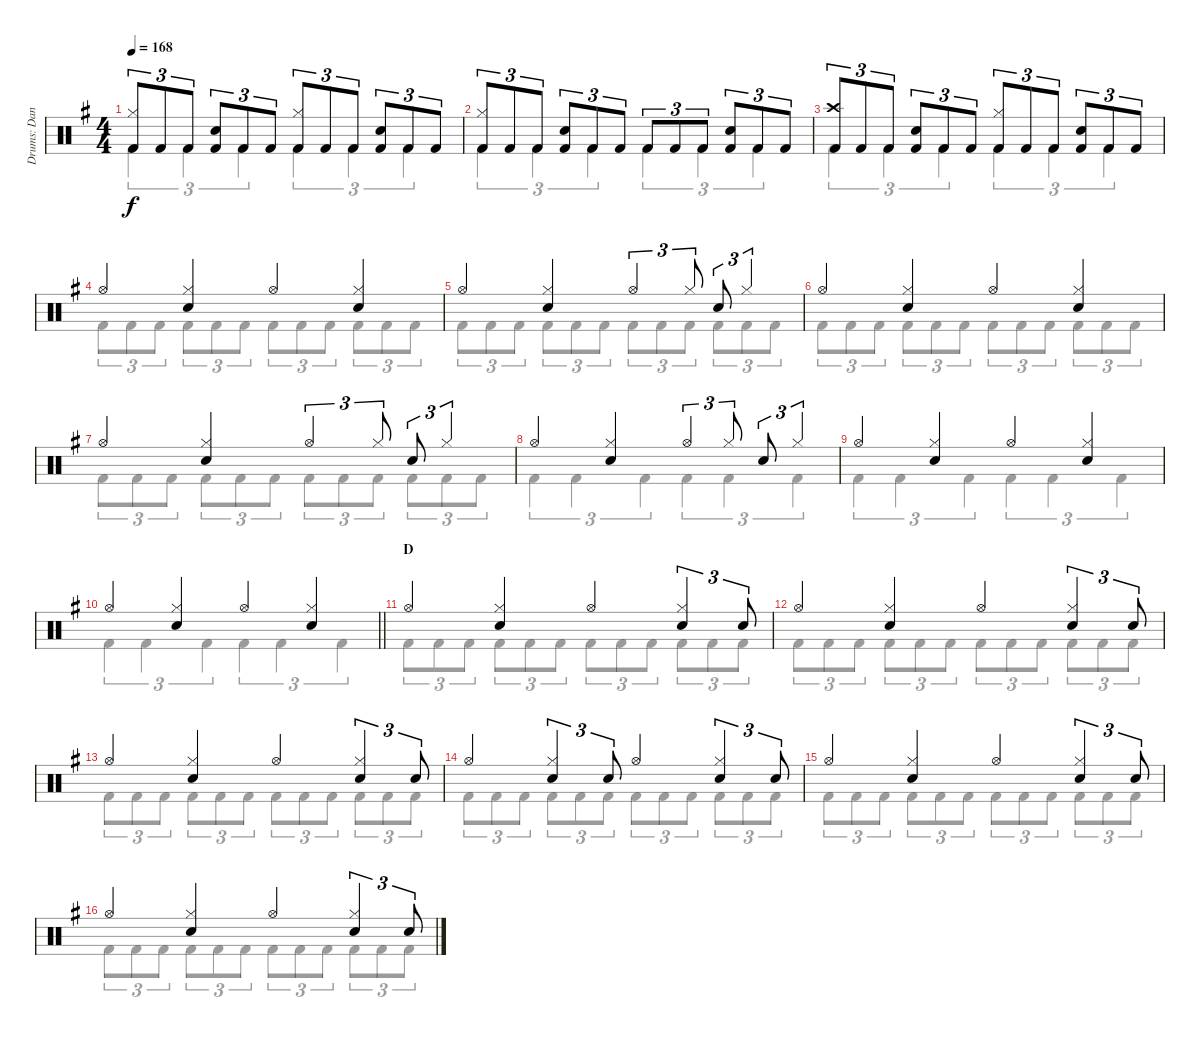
\track ("Drums: Dana" "Drums: Dan") {instrument percussion}
\staff {score}
\articulation defaults
\voice
\ts (4 4)
\tempo 168
\clef neutral
\ks g
("Hi-Hat (closed)" "Kick (hit) 2").8{tu (3 2) dy f} "Kick (hit) 2".8{tu (3 2)} "Kick (hit) 2".8{tu (3 2)} ("Electric Snare (hit)" "Kick (hit) 2").8{tu (3 2)} "Kick (hit) 2".8{tu (3 2)} "Kick (hit) 2".8{tu (3 2)} ("Hi-Hat (closed)" "Kick (hit) 2").8{tu (3 2)} "Kick (hit) 2".8{tu (3 2)} "Kick (hit) 2".8{tu (3 2)} ("Electric Snare (hit)" "Kick (hit) 2").8{tu (3 2)} "Kick (hit) 2".8{tu (3 2)} "Kick (hit) 2".8{tu (3 2)} |
("Hi-Hat (closed)" "Kick (hit) 2").8{tu (3 2)} "Kick (hit) 2".8{tu (3 2)} "Kick (hit) 2".8{tu (3 2)} ("Electric Snare (hit)" "Kick (hit) 2").8{tu (3 2)} "Kick (hit) 2".8{tu (3 2)} "Kick (hit) 2".8{tu (3 2)} "Kick (hit) 2".8{tu (3 2)} "Kick (hit) 2".8{tu (3 2)} "Kick (hit) 2".8{tu (3 2)} ("Electric Snare (hit)" "Kick (hit) 2").8{tu (3 2)} "Kick (hit) 2".8{tu (3 2)} "Kick (hit) 2".8{tu (3 2)} |
("Crash high (hit)" "Kick (hit) 2").8{tu (3 2)} "Kick (hit) 2".8{tu (3 2)} "Kick (hit) 2".8{tu (3 2)} ("Electric Snare (hit)" "Kick (hit) 2").8{tu (3 2)} "Kick (hit) 2".8{tu (3 2)} "Kick (hit) 2".8{tu (3 2)} ("Hi-Hat (closed)" "Kick (hit) 2").8{tu (3 2)} "Kick (hit) 2".8{tu (3 2)} "Kick (hit) 2".8{tu (3 2)} ("Electric Snare (hit)" "Kick (hit) 2").8{tu (3 2)} "Kick (hit) 2".8{tu (3 2)} "Kick (hit) 2".8{tu (3 2)} |
"Hi-Hat (open)".4 ("Hi-Hat (closed)" "Snare (hit) 2").4 "Hi-Hat (open)".4 ("Hi-Hat (closed)" "Snare (hit) 2").4 |
"Hi-Hat (open)".4 ("Hi-Hat (closed)" "Snare (hit) 2").4 "Hi-Hat (open)".4{tu (3 2)} "Hi-Hat (closed)".8{tu (3 2)} "Snare (hit) 2".8{tu (3 2)} "Hi-Hat (closed)".4{tu (3 2)} |
"Hi-Hat (open)".4 ("Hi-Hat (closed)" "Snare (hit) 2").4 "Hi-Hat (open)".4 ("Hi-Hat (closed)" "Snare (hit) 2").4 |
"Hi-Hat (open)".4 ("Hi-Hat (closed)" "Snare (hit) 2").4 "Hi-Hat (open)".4{tu (3 2)} "Hi-Hat (closed)".8{tu (3 2)} "Snare (hit) 2".8{tu (3 2)} "Hi-Hat (closed)".4{tu (3 2)} |
"Hi-Hat (open)".4 ("Hi-Hat (closed)" "Snare (hit) 2").4 "Hi-Hat (open)".4{tu (3 2)} "Hi-Hat (closed)".8{tu (3 2)} "Snare (hit) 2".8{tu (3 2)} "Hi-Hat (closed)".4{tu (3 2)} |
"Hi-Hat (open)".4 ("Hi-Hat (closed)" "Snare (hit) 2").4 "Hi-Hat (open)".4 ("Hi-Hat (closed)" "Snare (hit) 2").4 |
\barLineRight lightlight "Hi-Hat (open)".4
("Hi-Hat (closed)" "Snare (hit) 2").4 "Hi-Hat (open)".4 ("Hi-Hat (closed)" "Snare (hit) 2").4 |
\section ("" "D")
"Hi-Hat (open)".4 ("Hi-Hat (closed)" "Snare (hit) 2").4 "Hi-Hat (open)".4 ("Hi-Hat (closed)" "Snare (hit) 2").4{tu (3 2)} "Snare (hit) 2".8{tu (3 2)} |
"Hi-Hat (open)".4 ("Hi-Hat (closed)" "Snare (hit) 2").4 "Hi-Hat (open)".4 ("Hi-Hat (closed)" "Snare (hit) 2").4{tu (3 2)} "Snare (hit) 2".8{tu (3 2)} |
"Hi-Hat (open)".4 ("Hi-Hat (closed)" "Snare (hit) 2").4 "Hi-Hat (open)".4 ("Hi-Hat (closed)" "Snare (hit) 2").4{tu (3 2)} "Snare (hit) 2".8{tu (3 2)} |
"Hi-Hat (open)".4 ("Hi-Hat (closed)" "Snare (hit) 2").4{tu (3 2)} "Snare (hit) 2".8{tu (3 2)} "Hi-Hat (open)".4 ("Hi-Hat (closed)" "Snare (hit) 2").4{tu (3 2)} "Snare (hit) 2".8{tu (3 2)} |
"Hi-Hat (open)".4 ("Hi-Hat (closed)" "Snare (hit) 2").4 "Hi-Hat (open)".4 ("Hi-Hat (closed)" "Snare (hit) 2").4{tu (3 2)} "Snare (hit) 2".8{tu (3 2)} |
"Hi-Hat (open)".4 ("Hi-Hat (closed)" "Snare (hit) 2").4 "Hi-Hat (open)".4 ("Hi-Hat (closed)" "Snare (hit) 2").4{tu (3 2)} "Snare (hit) 2".8{tu (3 2)}
\voice
\clef neutral
\ottava regular
\simile none
\ks g "Kick (hit) 2".4{tu (3 2) dy f} "Kick (hit) 2".4{tu (3 2)} "Kick (hit) 2".4{tu (3 2)} "Kick (hit) 2".4{tu (3 2)} "Kick (hit) 2".4{tu (3 2)} "Kick (hit) 2".4{tu (3 2)}
|
"Kick (hit) 2".4{tu (3 2)} "Kick (hit) 2".4{tu (3 2)} "Kick (hit) 2".4{tu (3 2)} "Kick (hit) 2".4{tu (3 2)} "Kick (hit) 2".4{tu (3 2)} "Kick (hit) 2".4{tu (3 2)} |
"Kick (hit) 2".4{tu (3 2)} "Kick (hit) 2".4{tu (3 2)} "Kick (hit) 2".4{tu (3 2)} "Kick (hit) 2".4{tu (3 2)} "Kick (hit) 2".4{tu (3 2)} "Kick (hit) 2".4{tu (3 2)} |
"Kick (hit) 2".8{tu (3 2)} "Kick (hit) 2".8{tu (3 2)} "Kick (hit) 2".8{tu (3 2)} "Kick (hit) 2".8{tu (3 2)} "Kick (hit) 2".8{tu (3 2)} "Kick (hit) 2".8{tu (3 2)} "Kick (hit) 2".8{tu (3 2)} "Kick (hit) 2".8{tu (3 2)} "Kick (hit) 2".8{tu (3 2)} "Kick (hit) 2".8{tu (3 2)} "Kick (hit) 2".8{tu (3 2)} "Kick (hit) 2".8{tu (3 2)} |
"Kick (hit) 2".8{tu (3 2)} "Kick (hit) 2".8{tu (3 2)} "Kick (hit) 2".8{tu (3 2)} "Kick (hit) 2".8{tu (3 2)} "Kick (hit) 2".8{tu (3 2)} "Kick (hit) 2".8{tu (3 2)} "Kick (hit) 2".8{tu (3 2)} "Kick (hit) 2".8{tu (3 2)} "Kick (hit) 2".8{tu (3 2)} "Kick (hit) 2".8{tu (3 2)} "Kick (hit) 2".8{tu (3 2)} "Kick (hit) 2".8{tu (3 2)} |
"Kick (hit) 2".8{tu (3 2)} "Kick (hit) 2".8{tu (3 2)} "Kick (hit) 2".8{tu (3 2)} "Kick (hit) 2".8{tu (3 2)} "Kick (hit) 2".8{tu (3 2)} "Kick (hit) 2".8{tu (3 2)} "Kick (hit) 2".8{tu (3 2)} "Kick (hit) 2".8{tu (3 2)} "Kick (hit) 2".8{tu (3 2)} "Kick (hit) 2".8{tu (3 2)} "Kick (hit) 2".8{tu (3 2)} "Kick (hit) 2".8{tu (3 2)} |
"Kick (hit) 2".8{tu (3 2)} "Kick (hit) 2".8{tu (3 2)} "Kick (hit) 2".8{tu (3 2)} "Kick (hit) 2".8{tu (3 2)} "Kick (hit) 2".8{tu (3 2)} "Kick (hit) 2".8{tu (3 2)} "Kick (hit) 2".8{tu (3 2)} "Kick (hit) 2".8{tu (3 2)} "Kick (hit) 2".8{tu (3 2)} "Kick (hit) 2".8{tu (3 2)} "Kick (hit) 2".8{tu (3 2)} "Kick (hit) 2".8{tu (3 2)} |
"Kick (hit) 2".4{tu (3 2)} "Kick (hit) 2".4{tu (3 2)} "Kick (hit) 2".4{tu (3 2)} "Kick (hit) 2".4{tu (3 2)} "Kick (hit) 2".4{tu (3 2)} "Kick (hit) 2".4{tu (3 2)} |
"Kick (hit) 2".4{tu (3 2)} "Kick (hit) 2".4{tu (3 2)} "Kick (hit) 2".4{tu (3 2)} "Kick (hit) 2".4{tu (3 2)} "Kick (hit) 2".4{tu (3 2)} "Kick (hit) 2".4{tu (3 2)} |
\barLineRight lightlight "Kick (hit) 2".4{tu (3 2)} "Kick (hit) 2".4{tu (3 2)} "Kick (hit) 2".4{tu (3 2)} "Kick (hit) 2".4{tu (3 2)} "Kick (hit) 2".4{tu (3 2)} "Kick (hit) 2".4{tu (3 2)}
|
"Kick (hit) 2".8{tu (3 2)} "Kick (hit) 2".8{tu (3 2)} "Kick (hit) 2".8{tu (3 2)} "Kick (hit) 2".8{tu (3 2)} "Kick (hit) 2".8{tu (3 2)} "Kick (hit) 2".8{tu (3 2)} "Kick (hit) 2".8{tu (3 2)} "Kick (hit) 2".8{tu (3 2)} "Kick (hit) 2".8{tu (3 2)} "Kick (hit) 2".8{tu (3 2)} "Kick (hit) 2".8{tu (3 2)} "Kick (hit) 2".8{tu (3 2)} |
"Kick (hit) 2".8{tu (3 2)} "Kick (hit) 2".8{tu (3 2)} "Kick (hit) 2".8{tu (3 2)} "Kick (hit) 2".8{tu (3 2)} "Kick (hit) 2".8{tu (3 2)} "Kick (hit) 2".8{tu (3 2)} "Kick (hit) 2".8{tu (3 2)} "Kick (hit) 2".8{tu (3 2)} "Kick (hit) 2".8{tu (3 2)} "Kick (hit) 2".8{tu (3 2)} "Kick (hit) 2".8{tu (3 2)} "Kick (hit) 2".8{tu (3 2)} |
"Kick (hit) 2".8{tu (3 2)} "Kick (hit) 2".8{tu (3 2)} "Kick (hit) 2".8{tu (3 2)} "Kick (hit) 2".8{tu (3 2)} "Kick (hit) 2".8{tu (3 2)} "Kick (hit) 2".8{tu (3 2)} "Kick (hit) 2".8{tu (3 2)} "Kick (hit) 2".8{tu (3 2)} "Kick (hit) 2".8{tu (3 2)} "Kick (hit) 2".8{tu (3 2)} "Kick (hit) 2".8{tu (3 2)} "Kick (hit) 2".8{tu (3 2)} |
"Kick (hit) 2".8{tu (3 2)} "Kick (hit) 2".8{tu (3 2)} "Kick (hit) 2".8{tu (3 2)} "Kick (hit) 2".8{tu (3 2)} "Kick (hit) 2".8{tu (3 2)} "Kick (hit) 2".8{tu (3 2)} "Kick (hit) 2".8{tu (3 2)} "Kick (hit) 2".8{tu (3 2)} "Kick (hit) 2".8{tu (3 2)} "Kick (hit) 2".8{tu (3 2)} "Kick (hit) 2".8{tu (3 2)} "Kick (hit) 2".8{tu (3 2)} |
"Kick (hit) 2".8{tu (3 2)} "Kick (hit) 2".8{tu (3 2)} "Kick (hit) 2".8{tu (3 2)} "Kick (hit) 2".8{tu (3 2)} "Kick (hit) 2".8{tu (3 2)} "Kick (hit) 2".8{tu (3 2)} "Kick (hit) 2".8{tu (3 2)} "Kick (hit) 2".8{tu (3 2)} "Kick (hit) 2".8{tu (3 2)} "Kick (hit) 2".8{tu (3 2)} "Kick (hit) 2".8{tu (3 2)} "Kick (hit) 2".8{tu (3 2)} |
"Kick (hit) 2".8{tu (3 2)} "Kick (hit) 2".8{tu (3 2)} "Kick (hit) 2".8{tu (3 2)} "Kick (hit) 2".8{tu (3 2)} "Kick (hit) 2".8{tu (3 2)} "Kick (hit) 2".8{tu (3 2)} "Kick (hit) 2".8{tu (3 2)} "Kick (hit) 2".8{tu (3 2)} "Kick (hit) 2".8{tu (3 2)} "Kick (hit) 2".8{tu (3 2)} "Kick (hit) 2".8{tu (3 2)} "Kick (hit) 2".8{tu (3 2)}
